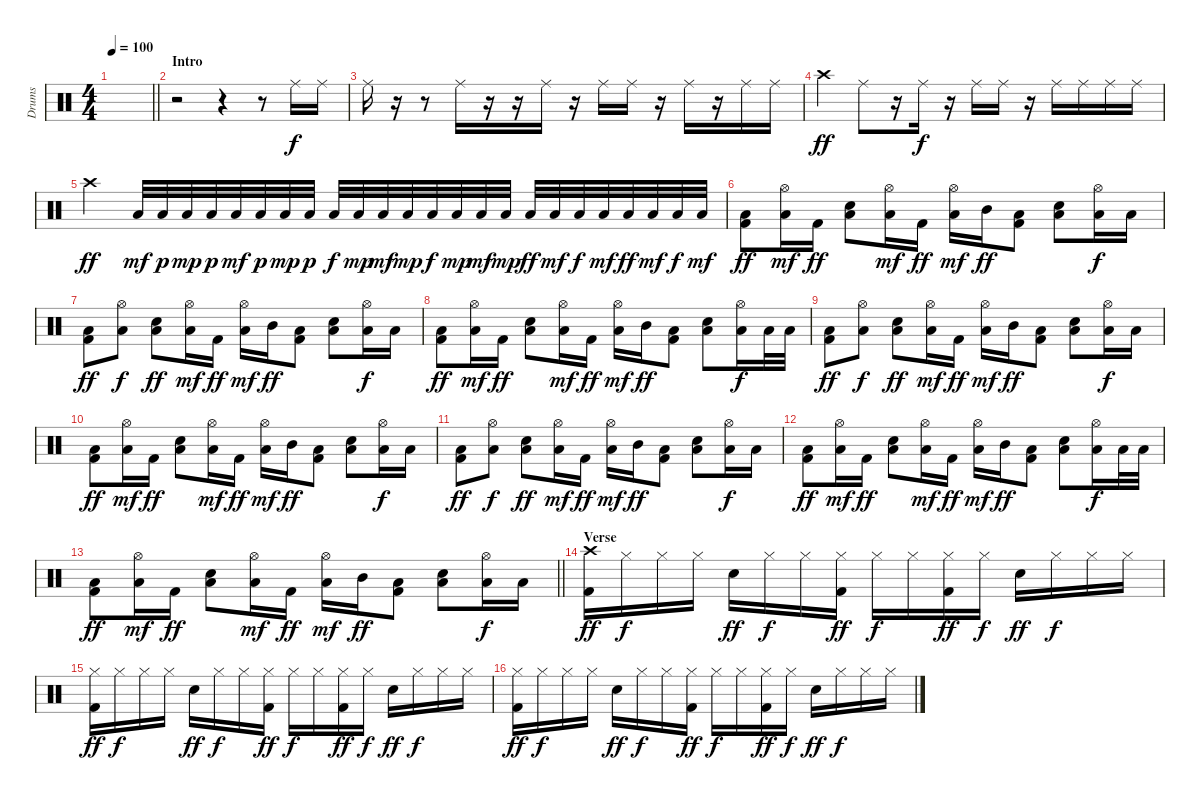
\track ("Drums" "Drums") {instrument percussion}
\staff {score}
\articulation defaults
\ts (4 4)
\tempo 100
\clef neutral
\barLineRight lightlight
\ks c
|
\section ("" "Intro")
r.2 r.4 r.8 "Ride (middle)".16 "Ride (middle)".16 |
"Ride (middle)".16 r.16 r.8 "Ride (middle)".16{dy f} r.16 r.16 "Ride (middle)".16 r.16 "Ride (middle)".16 "Ride (middle)".16 r.16 "Ride (middle)".16 r.16 "Ride (middle)".16 "Ride (middle)".16 |
"Crash high (hit)".4{dy ff} "Ride (middle)".8 r.16 "Ride (middle)".16{dy f} r.16 "Ride (middle)".16 "Ride (middle)".16 r.16 "Ride (middle)".16 "Ride (middle)".16 "Ride (middle)".16 "Ride (middle)".16 |
"Crash high (hit)".4{dy ff} "Low Floor Tom (hit)".32{dy mf} "Low Floor Tom (hit)".32{dy p} "Low Floor Tom (hit)".32{dy mp} "Low Floor Tom (hit)".32{dy p} "Low Floor Tom (hit)".32{dy mf} "Low Floor Tom (hit)".32{dy p} "Low Floor Tom (hit)".32{dy mp} "Low Floor Tom (hit)".32{dy p} "Low Floor Tom (hit)".32{dy f} "Low Floor Tom (hit)".32{dy mp} "Low Floor Tom (hit)".32{dy mf} "Low Floor Tom (hit)".32{dy mp} "Low Floor Tom (hit)".32{dy f} "Low Floor Tom (hit)".32{dy mp} "Low Floor Tom (hit)".32{dy mf} "Low Floor Tom (hit)".32{dy mp} "Low Floor Tom (hit)".32{dy ff} "Low Floor Tom (hit)".32{dy mf} "Low Floor Tom (hit)".32{dy f} "Low Floor Tom (hit)".32{dy mf} "Low Floor Tom (hit)".32{dy ff} "Low Floor Tom (hit)".32{dy mf} "Low Floor Tom (hit)".32{dy f} "Low Floor Tom (hit)".32{dy mf} |
("Low Tom (hit)" "Kick (hit) 2").8{dy ff} ("Hi-Hat (open)" "Low Tom (hit)").16{dy mf} "Kick (hit) 2".16{dy ff} ("Low Tom (hit)" "Snare (hit) 2").8 ("Hi-Hat (open)" "Low Tom (hit)").16{dy mf} "Kick (hit) 2".16{dy ff} ("Hi-Hat (open)" "Low Tom (hit)").16{dy mf} "Mid Tom (hit)".16{dy ff} ("Low Tom (hit)" "Kick (hit) 2").8 ("Low Tom (hit)" "Snare (hit) 2").8 ("Hi-Hat (open)" "Low Tom (hit)").16{dy f} "Low Tom (hit)".16 |
("Low Tom (hit)" "Kick (hit) 2").8{dy ff} ("Hi-Hat (open)" "Low Tom (hit)").8{dy f} ("Low Tom (hit)" "Snare (hit) 2").8{dy ff} ("Hi-Hat (open)" "Low Tom (hit)").16{dy mf} "Kick (hit) 2".16{dy ff} ("Hi-Hat (open)" "Low Tom (hit)").16{dy mf} "Mid Tom (hit)".16{dy ff} ("Low Tom (hit)" "Kick (hit) 2").8 ("Low Tom (hit)" "Snare (hit) 2").8 ("Hi-Hat (open)" "Low Tom (hit)").16{dy f} "Low Tom (hit)".16 |
("Low Tom (hit)" "Kick (hit) 2").8{dy ff} ("Hi-Hat (open)" "Low Tom (hit)").16{dy mf} "Kick (hit) 2".16{dy ff} ("Low Tom (hit)" "Snare (hit) 2").8 ("Hi-Hat (open)" "Low Tom (hit)").16{dy mf} "Kick (hit) 2".16{dy ff} ("Hi-Hat (open)" "Low Tom (hit)").16{dy mf} "Mid Tom (hit)".16{dy ff} ("Low Tom (hit)" "Kick (hit) 2").8 ("Low Tom (hit)" "Snare (hit) 2").8 ("Hi-Hat (open)" "Low Tom (hit)").16{dy f} "Low Tom (hit)".32 "Low Tom (hit)".32 |
("Low Tom (hit)" "Kick (hit) 2").8{dy ff} ("Hi-Hat (open)" "Low Tom (hit)").8{dy f} ("Low Tom (hit)" "Snare (hit) 2").8{dy ff} ("Hi-Hat (open)" "Low Tom (hit)").16{dy mf} "Kick (hit) 2".16{dy ff} ("Hi-Hat (open)" "Low Tom (hit)").16{dy mf} "Mid Tom (hit)".16{dy ff} ("Low Tom (hit)" "Kick (hit) 2").8 ("Low Tom (hit)" "Snare (hit) 2").8 ("Hi-Hat (open)" "Low Tom (hit)").16{dy f} "Low Tom (hit)".16 |
("Low Tom (hit)" "Kick (hit) 2").8{dy ff} ("Hi-Hat (open)" "Low Tom (hit)").16{dy mf} "Kick (hit) 2".16{dy ff} ("Low Tom (hit)" "Snare (hit) 2").8 ("Hi-Hat (open)" "Low Tom (hit)").16{dy mf} "Kick (hit) 2".16{dy ff} ("Hi-Hat (open)" "Low Tom (hit)").16{dy mf} "Mid Tom (hit)".16{dy ff} ("Low Tom (hit)" "Kick (hit) 2").8 ("Low Tom (hit)" "Snare (hit) 2").8 ("Hi-Hat (open)" "Low Tom (hit)").16{dy f} "Low Tom (hit)".16 |
("Low Tom (hit)" "Kick (hit) 2").8{dy ff} ("Hi-Hat (open)" "Low Tom (hit)").8{dy f} ("Low Tom (hit)" "Snare (hit) 2").8{dy ff} ("Hi-Hat (open)" "Low Tom (hit)").16{dy mf} "Kick (hit) 2".16{dy ff} ("Hi-Hat (open)" "Low Tom (hit)").16{dy mf} "Mid Tom (hit)".16{dy ff} ("Low Tom (hit)" "Kick (hit) 2").8 ("Low Tom (hit)" "Snare (hit) 2").8 ("Hi-Hat (open)" "Low Tom (hit)").16{dy f} "Low Tom (hit)".16 |
("Low Tom (hit)" "Kick (hit) 2").8{dy ff} ("Hi-Hat (open)" "Low Tom (hit)").16{dy mf} "Kick (hit) 2".16{dy ff} ("Low Tom (hit)" "Snare (hit) 2").8 ("Hi-Hat (open)" "Low Tom (hit)").16{dy mf} "Kick (hit) 2".16{dy ff} ("Hi-Hat (open)" "Low Tom (hit)").16{dy mf} "Mid Tom (hit)".16{dy ff} ("Low Tom (hit)" "Kick (hit) 2").8 ("Low Tom (hit)" "Snare (hit) 2").8 ("Hi-Hat (open)" "Low Tom (hit)").16{dy f} "Low Tom (hit)".32 "Low Tom (hit)".32 |
\barLineRight lightlight
("Low Tom (hit)" "Kick (hit) 2").8{dy ff} ("Hi-Hat (open)" "Low Tom (hit)").16{dy mf} "Kick (hit) 2".16{dy ff} ("Low Tom (hit)" "Snare (hit) 2").8 ("Hi-Hat (open)" "Low Tom (hit)").16{dy mf} "Kick (hit) 2".16{dy ff} ("Hi-Hat (open)" "Low Tom (hit)").16{dy mf} "Mid Tom (hit)".16{dy ff} ("Low Tom (hit)" "Kick (hit) 2").8 ("Low Tom (hit)" "Snare (hit) 2").8 ("Hi-Hat (open)" "Low Floor Tom (hit)").16{dy f} "Low Floor Tom (hit)".16 |
\section ("" "Verse")
("Crash high (hit)" "Kick (hit) 2").16{dy ff} "Hi-Hat (closed)".16{dy f} "Hi-Hat (closed)".16 "Hi-Hat (closed)".16 "Snare (hit) 2".16{dy ff} "Hi-Hat (closed)".16{dy f} "Hi-Hat (closed)".16 ("Hi-Hat (closed)" "Kick (hit) 2").16{dy ff} "Hi-Hat (closed)".16{dy f} "Hi-Hat (closed)".16 ("Hi-Hat (closed)" "Kick (hit) 2").16{dy ff} "Hi-Hat (closed)".16{dy f} "Snare (hit) 2".16{dy ff} "Hi-Hat (closed)".16{dy f} "Hi-Hat (closed)".16 "Hi-Hat (closed)".16 |
("Hi-Hat (closed)" "Kick (hit) 2").16{dy ff} "Hi-Hat (closed)".16{dy f} "Hi-Hat (closed)".16 "Hi-Hat (closed)".16 "Snare (hit) 2".16{dy ff} "Hi-Hat (closed)".16{dy f} "Hi-Hat (closed)".16 ("Hi-Hat (closed)" "Kick (hit) 2").16{dy ff} "Hi-Hat (closed)".16{dy f} "Hi-Hat (closed)".16 ("Hi-Hat (closed)" "Kick (hit) 2").16{dy ff} "Hi-Hat (closed)".16{dy f} "Snare (hit) 2".16{dy ff} "Hi-Hat (closed)".16{dy f} "Hi-Hat (closed)".16 "Hi-Hat (closed)".16 |
("Hi-Hat (closed)" "Kick (hit) 2").16{dy ff} "Hi-Hat (closed)".16{dy f} "Hi-Hat (closed)".16 "Hi-Hat (closed)".16 "Snare (hit) 2".16{dy ff} "Hi-Hat (closed)".16{dy f} "Hi-Hat (closed)".16 ("Hi-Hat (closed)" "Kick (hit) 2").16{dy ff} "Hi-Hat (closed)".16{dy f} "Hi-Hat (closed)".16 ("Hi-Hat (closed)" "Kick (hit) 2").16{dy ff} "Hi-Hat (closed)".16{dy f} "Snare (hit) 2".16{dy ff} "Hi-Hat (closed)".16{dy f} "Hi-Hat (closed)".16 "Hi-Hat (closed)".16
